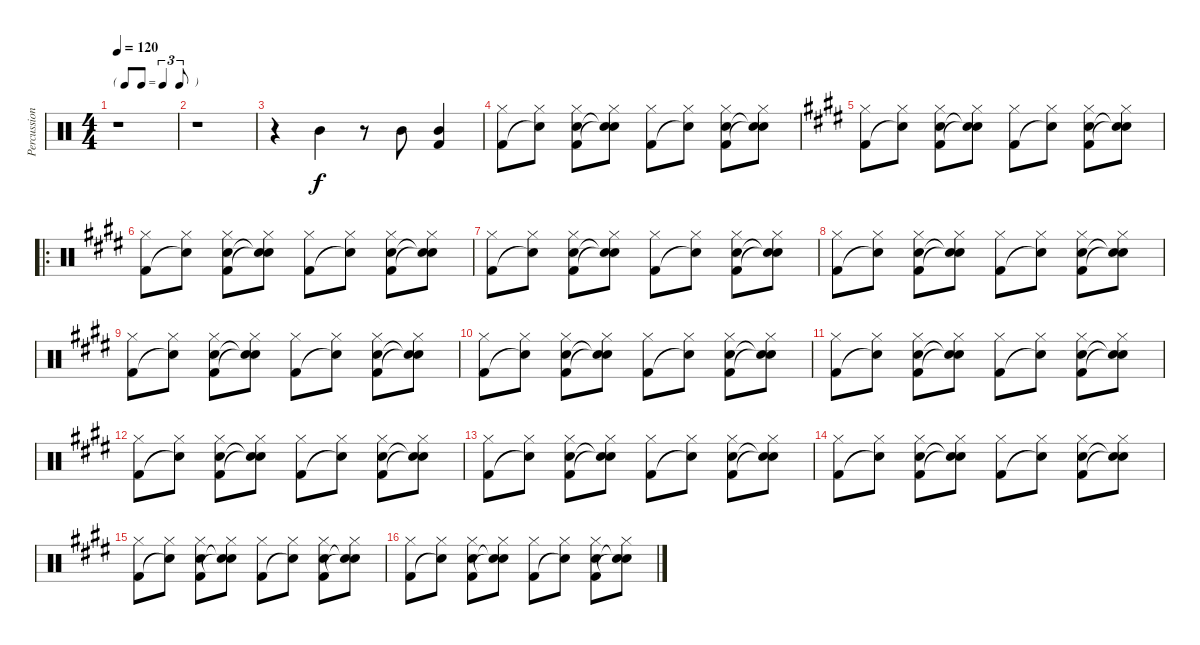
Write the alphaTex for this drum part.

\track ("Percussion" "Percussion") {instrument percussion}
\staff {score}
\articulation defaults
\ts (4 4)
\tf triplet8th
\tempo 120
\clef neutral
\ks c
r.1{dy f} |
r.1 |
r.4 "Mid Tom (hit)".4 r.8 "Mid Tom (hit)".8 ("Mid Tom (hit)" "Kick (hit) 2").4 |
("Hi-Hat (closed)" "Kick (hit) 2").8 ("Hi-Hat (closed)" "Snare (hit)"{t}).8 ("Hi-Hat (closed)" "Snare (hit) 2" "Kick (hit) 2").8 ("Hi-Hat (closed)" "Snare (hit)"{t} "Snare (hit)"{t}).8 ("Hi-Hat (closed)" "Kick (hit) 2").8 ("Hi-Hat (closed)" "Snare (hit)"{t}).8 ("Hi-Hat (closed)" "Snare (hit) 2" "Kick (hit) 2").8 ("Hi-Hat (closed)" "Snare (hit)"{t} "Snare (hit)"{t}).8 |
\ks e
("Hi-Hat (closed)" "Kick (hit) 2").8 ("Hi-Hat (closed)" "Snare (hit)"{t}).8 ("Hi-Hat (closed)" "Snare (hit) 2" "Kick (hit) 2").8 ("Hi-Hat (closed)" "Snare (hit)"{t} "Snare (hit)"{t}).8 ("Hi-Hat (closed)" "Kick (hit) 2").8 ("Hi-Hat (closed)" "Snare (hit)"{t}).8 ("Hi-Hat (closed)" "Snare (hit) 2" "Kick (hit) 2").8 ("Hi-Hat (closed)" "Snare (hit)"{t} "Snare (hit)"{t}).8 |
\ro
("Hi-Hat (closed)" "Kick (hit) 2").8 ("Hi-Hat (closed)" "Snare (hit)"{t}).8 ("Hi-Hat (closed)" "Snare (hit) 2" "Kick (hit) 2").8 ("Hi-Hat (closed)" "Snare (hit)"{t} "Snare (hit)"{t}).8 ("Hi-Hat (closed)" "Kick (hit) 2").8 ("Hi-Hat (closed)" "Snare (hit)"{t}).8 ("Hi-Hat (closed)" "Snare (hit) 2" "Kick (hit) 2").8 ("Hi-Hat (closed)" "Snare (hit)"{t} "Snare (hit)"{t}).8 |
("Hi-Hat (closed)" "Kick (hit) 2").8 ("Hi-Hat (closed)" "Snare (hit)"{t}).8 ("Hi-Hat (closed)" "Snare (hit) 2" "Kick (hit) 2").8 ("Hi-Hat (closed)" "Snare (hit)"{t} "Snare (hit)"{t}).8 ("Hi-Hat (closed)" "Kick (hit) 2").8 ("Hi-Hat (closed)" "Snare (hit)"{t}).8 ("Hi-Hat (closed)" "Snare (hit) 2" "Kick (hit) 2").8 ("Hi-Hat (closed)" "Snare (hit)"{t} "Snare (hit)"{t}).8 |
("Hi-Hat (closed)" "Kick (hit) 2").8 ("Hi-Hat (closed)" "Snare (hit)"{t}).8 ("Hi-Hat (closed)" "Snare (hit) 2" "Kick (hit) 2").8 ("Hi-Hat (closed)" "Snare (hit)"{t} "Snare (hit)"{t}).8 ("Hi-Hat (closed)" "Kick (hit) 2").8 ("Hi-Hat (closed)" "Snare (hit)"{t}).8 ("Hi-Hat (closed)" "Snare (hit) 2" "Kick (hit) 2").8 ("Hi-Hat (closed)" "Snare (hit)"{t} "Snare (hit)"{t}).8 |
("Hi-Hat (closed)" "Kick (hit) 2").8 ("Hi-Hat (closed)" "Snare (hit)"{t}).8 ("Hi-Hat (closed)" "Snare (hit) 2" "Kick (hit) 2").8 ("Hi-Hat (closed)" "Snare (hit)"{t} "Snare (hit)"{t}).8 ("Hi-Hat (closed)" "Kick (hit) 2").8 ("Hi-Hat (closed)" "Snare (hit)"{t}).8 ("Hi-Hat (closed)" "Snare (hit) 2" "Kick (hit) 2").8 ("Hi-Hat (closed)" "Snare (hit)"{t} "Snare (hit)"{t}).8 |
("Hi-Hat (closed)" "Kick (hit) 2").8 ("Hi-Hat (closed)" "Snare (hit)"{t}).8 ("Hi-Hat (closed)" "Snare (hit) 2" "Kick (hit) 2").8 ("Hi-Hat (closed)" "Snare (hit)"{t} "Snare (hit)"{t}).8 ("Hi-Hat (closed)" "Kick (hit) 2").8 ("Hi-Hat (closed)" "Snare (hit)"{t}).8 ("Hi-Hat (closed)" "Snare (hit) 2" "Kick (hit) 2").8 ("Hi-Hat (closed)" "Snare (hit)"{t} "Snare (hit)"{t}).8 |
("Hi-Hat (closed)" "Kick (hit) 2").8 ("Hi-Hat (closed)" "Snare (hit)"{t}).8 ("Hi-Hat (closed)" "Snare (hit) 2" "Kick (hit) 2").8 ("Hi-Hat (closed)" "Snare (hit)"{t} "Snare (hit)"{t}).8 ("Hi-Hat (closed)" "Kick (hit) 2").8 ("Hi-Hat (closed)" "Snare (hit)"{t}).8 ("Hi-Hat (closed)" "Snare (hit) 2" "Kick (hit) 2").8 ("Hi-Hat (closed)" "Snare (hit)"{t} "Snare (hit)"{t}).8 |
("Hi-Hat (closed)" "Kick (hit) 2").8 ("Hi-Hat (closed)" "Snare (hit)"{t}).8 ("Hi-Hat (closed)" "Snare (hit) 2" "Kick (hit) 2").8 ("Hi-Hat (closed)" "Snare (hit)"{t} "Snare (hit)"{t}).8 ("Hi-Hat (closed)" "Kick (hit) 2").8 ("Hi-Hat (closed)" "Snare (hit)"{t}).8 ("Hi-Hat (closed)" "Snare (hit) 2" "Kick (hit) 2").8 ("Hi-Hat (closed)" "Snare (hit)"{t} "Snare (hit)"{t}).8 |
("Hi-Hat (closed)" "Kick (hit) 2").8 ("Hi-Hat (closed)" "Snare (hit)"{t}).8 ("Hi-Hat (closed)" "Snare (hit) 2" "Kick (hit) 2").8 ("Hi-Hat (closed)" "Snare (hit)"{t} "Snare (hit)"{t}).8 ("Hi-Hat (closed)" "Kick (hit) 2").8 ("Hi-Hat (closed)" "Snare (hit)"{t}).8 ("Hi-Hat (closed)" "Snare (hit) 2" "Kick (hit) 2").8 ("Hi-Hat (closed)" "Snare (hit)"{t} "Snare (hit)"{t}).8 |
("Hi-Hat (closed)" "Kick (hit) 2").8 ("Hi-Hat (closed)" "Snare (hit)"{t}).8 ("Hi-Hat (closed)" "Snare (hit) 2" "Kick (hit) 2").8 ("Hi-Hat (closed)" "Snare (hit)"{t} "Snare (hit)"{t}).8 ("Hi-Hat (closed)" "Kick (hit) 2").8 ("Hi-Hat (closed)" "Snare (hit)"{t}).8 ("Hi-Hat (closed)" "Snare (hit) 2" "Kick (hit) 2").8 ("Hi-Hat (closed)" "Snare (hit)"{t} "Snare (hit)"{t}).8 |
("Hi-Hat (closed)" "Kick (hit) 2").8 ("Hi-Hat (closed)" "Snare (hit)"{t}).8 ("Hi-Hat (closed)" "Snare (hit) 2" "Kick (hit) 2").8 ("Hi-Hat (closed)" "Snare (hit)"{t} "Snare (hit)"{t}).8 ("Hi-Hat (closed)" "Kick (hit) 2").8 ("Hi-Hat (closed)" "Snare (hit)"{t}).8 ("Hi-Hat (closed)" "Snare (hit) 2" "Kick (hit) 2").8 ("Hi-Hat (closed)" "Snare (hit)"{t} "Snare (hit)"{t}).8 |
("Hi-Hat (closed)" "Kick (hit) 2").8 ("Hi-Hat (closed)" "Snare (hit)"{t}).8 ("Hi-Hat (closed)" "Snare (hit) 2" "Kick (hit) 2").8 ("Hi-Hat (closed)" "Snare (hit)"{t} "Snare (hit)"{t}).8 ("Hi-Hat (closed)" "Kick (hit) 2").8 ("Hi-Hat (closed)" "Snare (hit)"{t}).8 ("Hi-Hat (closed)" "Snare (hit) 2" "Kick (hit) 2").8 ("Hi-Hat (closed)" "Snare (hit)"{t} "Snare (hit)"{t}).8
